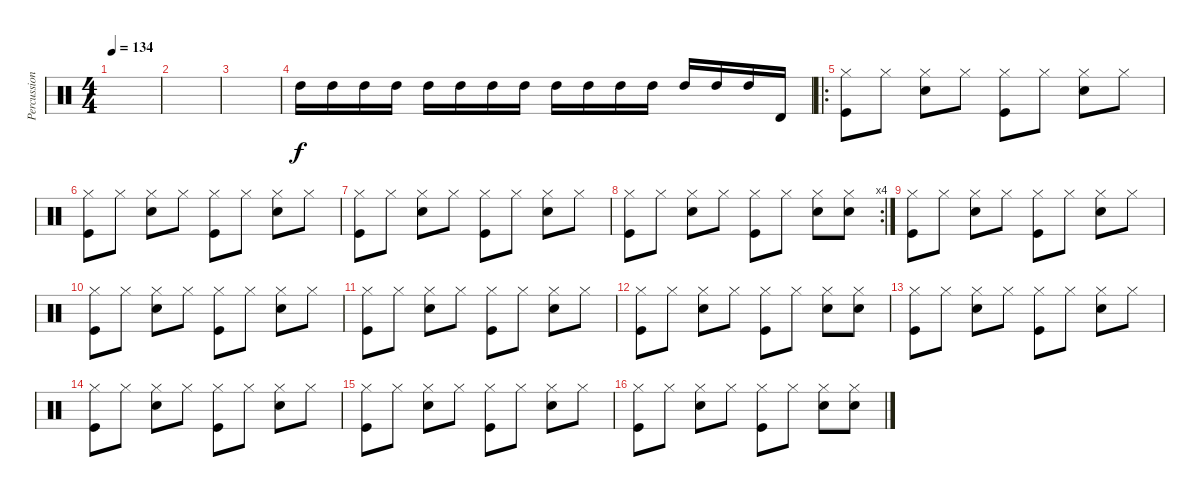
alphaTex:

\track ("Percussion" "Percussion") {instrument percussion}
\staff {score}
\articulation defaults
\ts (4 4)
\tempo 134
\clef neutral
\ks c
|
|
|
"High Tom (hit)".16 "High Tom (hit)".16 "High Tom (hit)".16 "High Tom (hit)".16 "High Tom (hit)".16 "High Tom (hit)".16 "High Tom (hit)".16 "High Tom (hit)".16 "High Tom (hit)".16 "High Tom (hit)".16 "High Tom (hit)".16 "High Tom (hit)".16 "High Tom (hit)".16 "High Tom (hit)".16 "High Tom (hit)".16 "Timbale high (hit)".16 |
\ro
("Hi-Hat (closed)" "Kick (hit)").8 "Hi-Hat (closed)".8 ("Hi-Hat (closed)" "Snare (hit) 2").8 "Hi-Hat (closed)".8 ("Hi-Hat (closed)" "Kick (hit)").8 "Hi-Hat (closed)".8 ("Hi-Hat (closed)" "Snare (hit) 2").8 "Hi-Hat (closed)".8 |
("Hi-Hat (closed)" "Kick (hit)").8 "Hi-Hat (closed)".8 ("Hi-Hat (closed)" "Snare (hit) 2").8 "Hi-Hat (closed)".8 ("Hi-Hat (closed)" "Kick (hit)").8 "Hi-Hat (closed)".8 ("Hi-Hat (closed)" "Snare (hit) 2").8 "Hi-Hat (closed)".8 |
("Hi-Hat (closed)" "Kick (hit)").8 "Hi-Hat (closed)".8 ("Hi-Hat (closed)" "Snare (hit) 2").8 "Hi-Hat (closed)".8 ("Hi-Hat (closed)" "Kick (hit)").8 "Hi-Hat (closed)".8 ("Hi-Hat (closed)" "Snare (hit) 2").8 "Hi-Hat (closed)".8 |
\rc 4
("Hi-Hat (closed)" "Kick (hit)").8 "Hi-Hat (closed)".8 ("Hi-Hat (closed)" "Snare (hit) 2").8 "Hi-Hat (closed)".8 ("Hi-Hat (closed)" "Kick (hit)").8 "Hi-Hat (closed)".8 ("Hi-Hat (closed)" "Snare (hit) 2").8 ("Hi-Hat (closed)" "Snare (hit) 2").8 |
("Hi-Hat (closed)" "Kick (hit)").8 "Hi-Hat (closed)".8 ("Hi-Hat (closed)" "Snare (hit) 2").8 "Hi-Hat (closed)".8 ("Hi-Hat (closed)" "Kick (hit)").8 "Hi-Hat (closed)".8 ("Hi-Hat (closed)" "Snare (hit) 2").8 "Hi-Hat (closed)".8 |
("Hi-Hat (closed)" "Kick (hit)").8 "Hi-Hat (closed)".8 ("Hi-Hat (closed)" "Snare (hit) 2").8 "Hi-Hat (closed)".8 ("Hi-Hat (closed)" "Kick (hit)").8 "Hi-Hat (closed)".8 ("Hi-Hat (closed)" "Snare (hit) 2").8 "Hi-Hat (closed)".8 |
("Hi-Hat (closed)" "Kick (hit)").8 "Hi-Hat (closed)".8 ("Hi-Hat (closed)" "Snare (hit) 2").8 "Hi-Hat (closed)".8 ("Hi-Hat (closed)" "Kick (hit)").8 "Hi-Hat (closed)".8 ("Hi-Hat (closed)" "Snare (hit) 2").8 "Hi-Hat (closed)".8 |
("Hi-Hat (closed)" "Kick (hit)").8 "Hi-Hat (closed)".8 ("Hi-Hat (closed)" "Snare (hit) 2").8 "Hi-Hat (closed)".8 ("Hi-Hat (closed)" "Kick (hit)").8 "Hi-Hat (closed)".8 ("Hi-Hat (closed)" "Snare (hit) 2").8 ("Hi-Hat (closed)" "Snare (hit) 2").8 |
("Hi-Hat (closed)" "Kick (hit)").8 "Hi-Hat (closed)".8 ("Hi-Hat (closed)" "Snare (hit) 2").8 "Hi-Hat (closed)".8 ("Hi-Hat (closed)" "Kick (hit)").8 "Hi-Hat (closed)".8 ("Hi-Hat (closed)" "Snare (hit) 2").8 "Hi-Hat (closed)".8 |
("Hi-Hat (closed)" "Kick (hit)").8 "Hi-Hat (closed)".8 ("Hi-Hat (closed)" "Snare (hit) 2").8 "Hi-Hat (closed)".8 ("Hi-Hat (closed)" "Kick (hit)").8 "Hi-Hat (closed)".8 ("Hi-Hat (closed)" "Snare (hit) 2").8 "Hi-Hat (closed)".8 |
("Hi-Hat (closed)" "Kick (hit)").8 "Hi-Hat (closed)".8 ("Hi-Hat (closed)" "Snare (hit) 2").8 "Hi-Hat (closed)".8 ("Hi-Hat (closed)" "Kick (hit)").8 "Hi-Hat (closed)".8 ("Hi-Hat (closed)" "Snare (hit) 2").8 "Hi-Hat (closed)".8 |
("Hi-Hat (closed)" "Kick (hit)").8 "Hi-Hat (closed)".8 ("Hi-Hat (closed)" "Snare (hit) 2").8 "Hi-Hat (closed)".8 ("Hi-Hat (closed)" "Kick (hit)").8 "Hi-Hat (closed)".8 ("Hi-Hat (closed)" "Snare (hit) 2").8 ("Hi-Hat (closed)" "Snare (hit) 2").8
